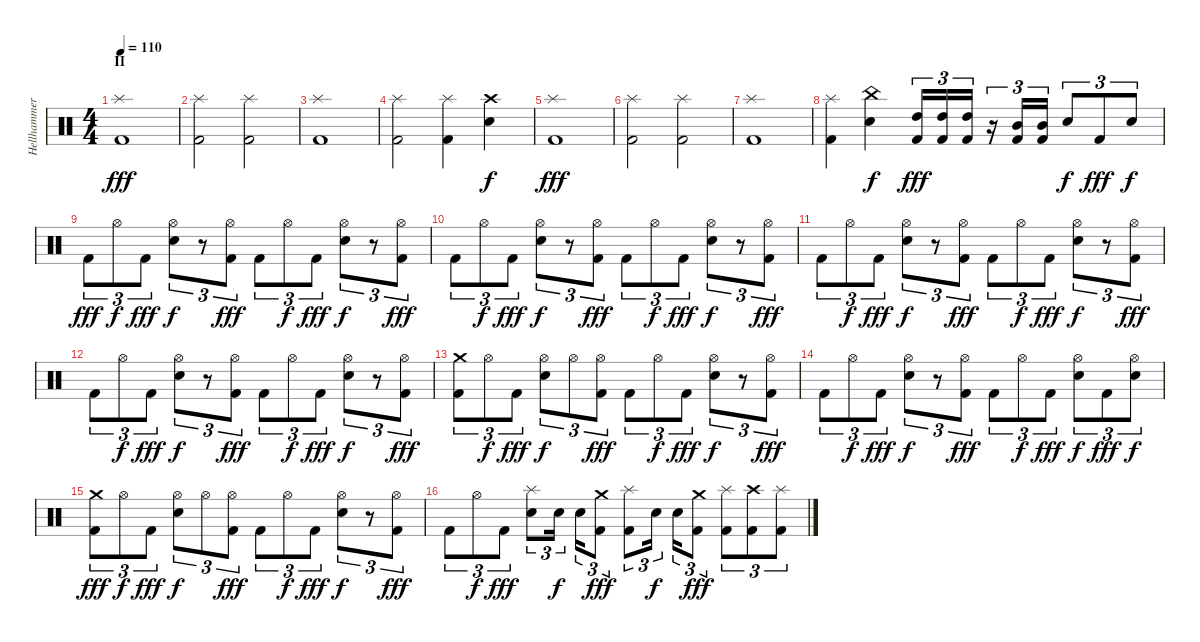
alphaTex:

\track ("Hellhammer" "Hellhammer") {instrument percussion}
\staff {score}
\articulation defaults
\ts (4 4)
\section ("" "II")
\tempo 110
\clef neutral
\ks c
("Kick (hit) 2" "Splash (hit)").1{dy fff} |
("Kick (hit) 2" "Splash (hit)").2 ("Kick (hit) 2" "Splash (hit)").2 |
("Kick (hit) 2" "Splash (hit)").1 |
("Kick (hit) 2" "Splash (hit)").2 ("Kick (hit) 2" "Splash (hit)").4 ("Electric Snare (hit)" "Crash high (hit)").4{dy f} |
("Kick (hit) 2" "Splash (hit)").1{dy fff} |
("Kick (hit) 2" "Splash (hit)").2 ("Kick (hit) 2" "Splash (hit)").2 |
("Kick (hit) 2" "Splash (hit)").1 |
("Kick (hit) 2" "Splash (hit)").4 ("Electric Snare (hit)" "China (hit)").4{dy f} ("Kick (hit) 2" "High Tom (hit)").16{tu (3 2) dy fff} ("Kick (hit) 2" "High Tom (hit)").16{tu (3 2)} ("Kick (hit) 2" "High Tom (hit)").16{tu (3 2)} r.16{tu (3 2)} ("Kick (hit) 2" "Mid Tom (hit)").16{tu (3 2)} ("Kick (hit) 2" "Mid Tom (hit)").16{tu (3 2)} "Electric Snare (hit)".8{tu (3 2) dy f} "Kick (hit) 2".8{tu (3 2) dy fff} "Electric Snare (hit)".8{tu (3 2) dy f} |
"Kick (hit) 2".8{tu (3 2) dy fff} "Hi-Hat (open)".8{tu (3 2) dy f} "Kick (hit) 2".8{tu (3 2) dy fff} ("Electric Snare (hit)" "Hi-Hat (open)").8{tu (3 2) dy f} r.8{tu (3 2)} ("Kick (hit) 2" "Hi-Hat (open)").8{tu (3 2) dy fff} "Kick (hit) 2".8{tu (3 2)} "Hi-Hat (open)".8{tu (3 2) dy f} "Kick (hit) 2".8{tu (3 2) dy fff} ("Electric Snare (hit)" "Hi-Hat (open)").8{tu (3 2) dy f} r.8{tu (3 2)} ("Kick (hit) 2" "Hi-Hat (open)").8{tu (3 2) dy fff} |
"Kick (hit) 2".8{tu (3 2)} "Hi-Hat (open)".8{tu (3 2) dy f} "Kick (hit) 2".8{tu (3 2) dy fff} ("Electric Snare (hit)" "Hi-Hat (open)").8{tu (3 2) dy f} r.8{tu (3 2)} ("Kick (hit) 2" "Hi-Hat (open)").8{tu (3 2) dy fff} "Kick (hit) 2".8{tu (3 2)} "Hi-Hat (open)".8{tu (3 2) dy f} "Kick (hit) 2".8{tu (3 2) dy fff} ("Electric Snare (hit)" "Hi-Hat (open)").8{tu (3 2) dy f} r.8{tu (3 2)} ("Kick (hit) 2" "Hi-Hat (open)").8{tu (3 2) dy fff} |
"Kick (hit) 2".8{tu (3 2)} "Hi-Hat (open)".8{tu (3 2) dy f} "Kick (hit) 2".8{tu (3 2) dy fff} ("Electric Snare (hit)" "Hi-Hat (open)").8{tu (3 2) dy f} r.8{tu (3 2)} ("Kick (hit) 2" "Hi-Hat (open)").8{tu (3 2) dy fff} "Kick (hit) 2".8{tu (3 2)} "Hi-Hat (open)".8{tu (3 2) dy f} "Kick (hit) 2".8{tu (3 2) dy fff} ("Electric Snare (hit)" "Hi-Hat (open)").8{tu (3 2) dy f} r.8{tu (3 2)} ("Kick (hit) 2" "Hi-Hat (open)").8{tu (3 2) dy fff} |
"Kick (hit) 2".8{tu (3 2)} "Hi-Hat (open)".8{tu (3 2) dy f} "Kick (hit) 2".8{tu (3 2) dy fff} ("Electric Snare (hit)" "Hi-Hat (open)").8{tu (3 2) dy f} r.8{tu (3 2)} ("Kick (hit) 2" "Hi-Hat (open)").8{tu (3 2) dy fff} "Kick (hit) 2".8{tu (3 2)} "Hi-Hat (open)".8{tu (3 2) dy f} "Kick (hit) 2".8{tu (3 2) dy fff} ("Electric Snare (hit)" "Hi-Hat (open)").8{tu (3 2) dy f} r.8{tu (3 2)} ("Kick (hit) 2" "Hi-Hat (open)").8{tu (3 2) dy fff} |
("Kick (hit) 2" "Crash medium (hit)").8{tu (3 2)} "Hi-Hat (open)".8{tu (3 2) dy f} "Kick (hit) 2".8{tu (3 2) dy fff} ("Electric Snare (hit)" "Hi-Hat (open)").8{tu (3 2) dy f} "Hi-Hat (open)".8{tu (3 2)} ("Kick (hit) 2" "Hi-Hat (open)").8{tu (3 2) dy fff} "Kick (hit) 2".8{tu (3 2)} "Hi-Hat (open)".8{tu (3 2) dy f} "Kick (hit) 2".8{tu (3 2) dy fff} ("Electric Snare (hit)" "Hi-Hat (open)").8{tu (3 2) dy f} r.8{tu (3 2)} ("Kick (hit) 2" "Hi-Hat (open)").8{tu (3 2) dy fff} |
"Kick (hit) 2".8{tu (3 2)} "Hi-Hat (open)".8{tu (3 2) dy f} "Kick (hit) 2".8{tu (3 2) dy fff} ("Electric Snare (hit)" "Hi-Hat (open)").8{tu (3 2) dy f} r.8{tu (3 2)} ("Kick (hit) 2" "Hi-Hat (open)").8{tu (3 2) dy fff} "Kick (hit) 2".8{tu (3 2)} "Hi-Hat (open)".8{tu (3 2) dy f} "Kick (hit) 2".8{tu (3 2) dy fff} ("Electric Snare (hit)" "Hi-Hat (open)").8{tu (3 2) dy f} "Kick (hit) 2".8{tu (3 2) dy fff} ("Electric Snare (hit)" "Hi-Hat (open)").8{tu (3 2) dy f} |
("Kick (hit) 2" "Crash medium (hit)").8{tu (3 2) dy fff} "Hi-Hat (open)".8{tu (3 2) dy f} "Kick (hit) 2".8{tu (3 2) dy fff} ("Electric Snare (hit)" "Hi-Hat (open)").8{tu (3 2) dy f} "Hi-Hat (open)".8{tu (3 2)} ("Kick (hit) 2" "Hi-Hat (open)").8{tu (3 2) dy fff} "Kick (hit) 2".8{tu (3 2)} "Hi-Hat (open)".8{tu (3 2) dy f} "Kick (hit) 2".8{tu (3 2) dy fff} ("Electric Snare (hit)" "Hi-Hat (open)").8{tu (3 2) dy f} r.8{tu (3 2)} ("Kick (hit) 2" "Hi-Hat (open)").8{tu (3 2) dy fff} |
"Kick (hit) 2".8{tu (3 2)} "Hi-Hat (open)".8{tu (3 2) dy f} "Kick (hit) 2".8{tu (3 2) dy fff} ("Electric Snare (hit)" "Splash (hit)").8{tu (3 2)} "Electric Snare (hit)".16{tu (3 2) dy f} "Electric Snare (hit)".16{tu (3 2)} ("Kick (hit) 2" "Crash medium (hit)").8{tu (3 2) dy fff} ("Kick (hit) 2" "Splash (hit)").8{tu (3 2)} "Electric Snare (hit)".16{tu (3 2) dy f} "Electric Snare (hit)".16{tu (3 2)} ("Kick (hit) 2" "Crash medium (hit)").8{tu (3 2) dy fff} ("Kick (hit) 2" "Splash (hit)").8{tu (3 2)} ("Kick (hit) 2" "Crash high (hit)").8{tu (3 2)} ("Kick (hit) 2" "Splash (hit)").8{tu (3 2)}
